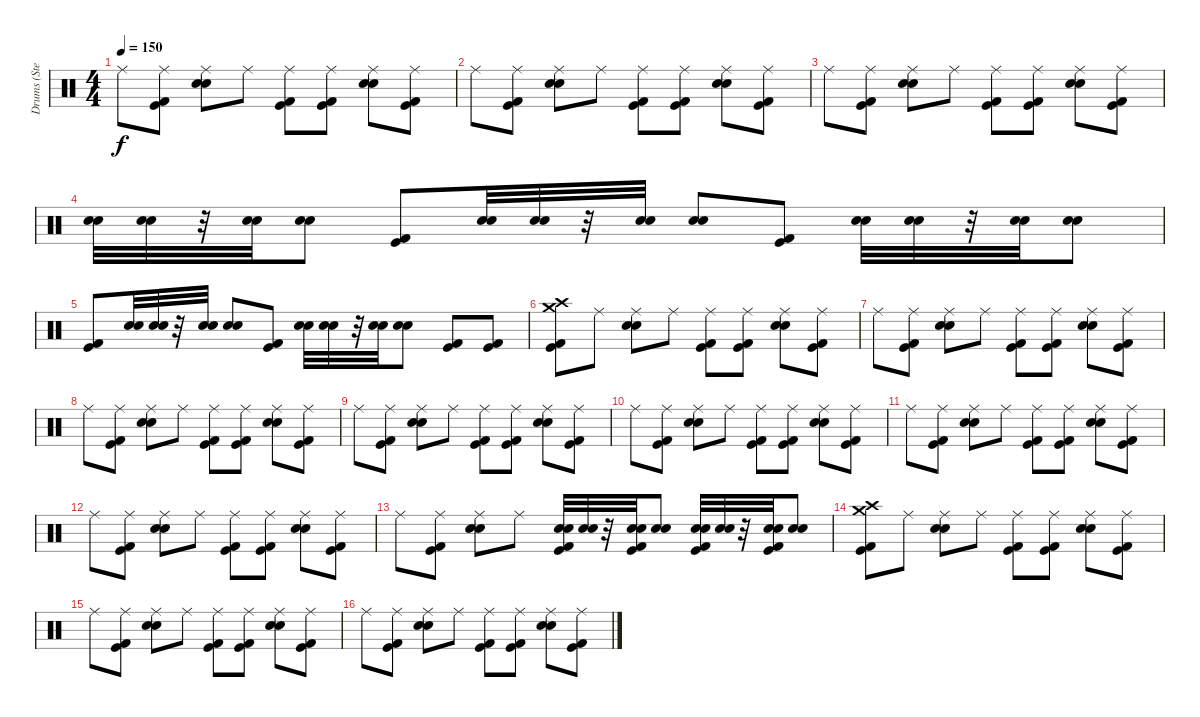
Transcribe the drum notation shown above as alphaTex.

\track ("Drums (Steven)" "Drums (Ste") {instrument percussion}
\staff {score}
\articulation defaults
\ts (4 4)
\tempo 150
\clef neutral
\ks c "Ride (middle)".8{dy f}
("Kick (hit) 2" "Kick (hit)" "Ride (middle)").8 ("Electric Snare (hit)" "Snare (hit) 2" "Ride (middle)").8 "Ride (middle)".8 ("Kick (hit) 2" "Kick (hit)" "Ride (middle)").8 ("Kick (hit) 2" "Kick (hit)" "Ride (middle)").8 ("Electric Snare (hit)" "Snare (hit) 2" "Ride (middle)").8 ("Kick (hit) 2" "Kick (hit)" "Ride (middle)").8 |
"Ride (middle)".8 ("Kick (hit) 2" "Kick (hit)" "Ride (middle)").8 ("Electric Snare (hit)" "Snare (hit) 2" "Ride (middle)").8 "Ride (middle)".8 ("Kick (hit) 2" "Kick (hit)" "Ride (middle)").8 ("Kick (hit) 2" "Kick (hit)" "Ride (middle)").8 ("Electric Snare (hit)" "Snare (hit) 2" "Ride (middle)").8 ("Kick (hit) 2" "Kick (hit)" "Ride (middle)").8 |
"Ride (middle)".8 ("Kick (hit) 2" "Kick (hit)" "Ride (middle)").8 ("Electric Snare (hit)" "Snare (hit) 2" "Ride (middle)").8 "Ride (middle)".8 ("Kick (hit) 2" "Kick (hit)" "Ride (middle)").8 ("Kick (hit) 2" "Kick (hit)" "Ride (middle)").8 ("Electric Snare (hit)" "Snare (hit) 2" "Ride (middle)").8 ("Kick (hit) 2" "Kick (hit)" "Ride (middle)").8 |
("Snare (hit) 2" "Electric Snare (hit)").32 ("Snare (hit) 2" "Electric Snare (hit)").32 r.32 ("Snare (hit) 2" "Electric Snare (hit)").32 ("Snare (hit) 2" "Electric Snare (hit)").8 ("Kick (hit) 2" "Kick (hit)").8 ("Snare (hit) 2" "Electric Snare (hit)").32 ("Snare (hit) 2" "Electric Snare (hit)").32 r.32 ("Snare (hit) 2" "Electric Snare (hit)").32 ("Snare (hit) 2" "Electric Snare (hit)").8 ("Kick (hit) 2" "Kick (hit)").8 ("Snare (hit) 2" "Electric Snare (hit)").32 ("Snare (hit) 2" "Electric Snare (hit)").32 r.32 ("Snare (hit) 2" "Electric Snare (hit)").32 ("Snare (hit) 2" "Electric Snare (hit)").8 |
("Kick (hit) 2" "Kick (hit)").8 ("Snare (hit) 2" "Electric Snare (hit)").32 ("Snare (hit) 2" "Electric Snare (hit)").32 r.32 ("Snare (hit) 2" "Electric Snare (hit)").32 ("Snare (hit) 2" "Electric Snare (hit)").8 ("Kick (hit) 2" "Kick (hit)").8 ("Snare (hit) 2" "Electric Snare (hit)").32 ("Snare (hit) 2" "Electric Snare (hit)").32 r.32 ("Snare (hit) 2" "Electric Snare (hit)").32 ("Snare (hit) 2" "Electric Snare (hit)").8 ("Kick (hit) 2" "Kick (hit)").8 ("Kick (hit) 2" "Kick (hit)").8 |
("Kick (hit) 2" "Kick (hit)" "Crash medium (hit)" "Crash high (hit)").8 "Ride (middle)".8 ("Electric Snare (hit)" "Snare (hit) 2" "Ride (middle)").8 "Ride (middle)".8 ("Kick (hit) 2" "Kick (hit)" "Ride (middle)").8 ("Kick (hit) 2" "Kick (hit)" "Ride (middle)").8 ("Electric Snare (hit)" "Snare (hit) 2" "Ride (middle)").8 ("Kick (hit) 2" "Kick (hit)" "Ride (middle)").8 |
"Ride (middle)".8 ("Kick (hit) 2" "Kick (hit)" "Ride (middle)").8 ("Electric Snare (hit)" "Snare (hit) 2" "Ride (middle)").8 "Ride (middle)".8 ("Kick (hit) 2" "Kick (hit)" "Ride (middle)").8 ("Kick (hit) 2" "Kick (hit)" "Ride (middle)").8 ("Electric Snare (hit)" "Snare (hit) 2" "Ride (middle)").8 ("Kick (hit) 2" "Kick (hit)" "Ride (middle)").8 |
"Ride (middle)".8 ("Kick (hit) 2" "Kick (hit)" "Ride (middle)").8 ("Electric Snare (hit)" "Snare (hit) 2" "Ride (middle)").8 "Ride (middle)".8 ("Kick (hit) 2" "Kick (hit)" "Ride (middle)").8 ("Kick (hit) 2" "Kick (hit)" "Ride (middle)").8 ("Electric Snare (hit)" "Snare (hit) 2" "Ride (middle)").8 ("Kick (hit) 2" "Kick (hit)" "Ride (middle)").8 |
"Ride (middle)".8 ("Kick (hit) 2" "Kick (hit)" "Ride (middle)").8 ("Electric Snare (hit)" "Snare (hit) 2" "Ride (middle)").8 "Ride (middle)".8 ("Kick (hit) 2" "Kick (hit)" "Ride (middle)").8 ("Kick (hit) 2" "Kick (hit)" "Ride (middle)").8 ("Electric Snare (hit)" "Snare (hit) 2" "Ride (middle)").8 ("Kick (hit) 2" "Kick (hit)" "Ride (middle)").8 |
"Ride (middle)".8 ("Kick (hit) 2" "Kick (hit)" "Ride (middle)").8 ("Electric Snare (hit)" "Snare (hit) 2" "Ride (middle)").8 "Ride (middle)".8 ("Kick (hit) 2" "Kick (hit)" "Ride (middle)").8 ("Kick (hit) 2" "Kick (hit)" "Ride (middle)").8 ("Electric Snare (hit)" "Snare (hit) 2" "Ride (middle)").8 ("Kick (hit) 2" "Kick (hit)" "Ride (middle)").8 |
"Ride (middle)".8 ("Kick (hit) 2" "Kick (hit)" "Ride (middle)").8 ("Electric Snare (hit)" "Snare (hit) 2" "Ride (middle)").8 "Ride (middle)".8 ("Kick (hit) 2" "Kick (hit)" "Ride (middle)").8 ("Kick (hit) 2" "Kick (hit)" "Ride (middle)").8 ("Electric Snare (hit)" "Snare (hit) 2" "Ride (middle)").8 ("Kick (hit) 2" "Kick (hit)" "Ride (middle)").8 |
"Ride (middle)".8 ("Kick (hit) 2" "Kick (hit)" "Ride (middle)").8 ("Electric Snare (hit)" "Snare (hit) 2" "Ride (middle)").8 "Ride (middle)".8 ("Kick (hit) 2" "Kick (hit)" "Ride (middle)").8 ("Kick (hit) 2" "Kick (hit)" "Ride (middle)").8 ("Electric Snare (hit)" "Snare (hit) 2" "Ride (middle)").8 ("Kick (hit) 2" "Kick (hit)" "Ride (middle)").8 |
"Ride (middle)".8 ("Kick (hit) 2" "Kick (hit)" "Ride (middle)").8 ("Electric Snare (hit)" "Snare (hit) 2" "Ride (middle)").8 "Ride (middle)".8 ("Kick (hit) 2" "Kick (hit)" "Snare (hit) 2" "Electric Snare (hit)").32 ("Snare (hit) 2" "Electric Snare (hit)").32 r.32 ("Kick (hit) 2" "Kick (hit)" "Snare (hit) 2" "Electric Snare (hit)").32 ("Snare (hit) 2" "Electric Snare (hit)").8 ("Kick (hit) 2" "Kick (hit)" "Snare (hit) 2" "Electric Snare (hit)").32 ("Snare (hit) 2" "Electric Snare (hit)").32 r.32 ("Kick (hit) 2" "Kick (hit)" "Snare (hit) 2" "Electric Snare (hit)").32 ("Snare (hit) 2" "Electric Snare (hit)").8 |
("Kick (hit) 2" "Kick (hit)" "Crash medium (hit)" "Crash high (hit)").8 "Ride (middle)".8 ("Electric Snare (hit)" "Snare (hit) 2" "Ride (middle)").8 "Ride (middle)".8 ("Kick (hit) 2" "Kick (hit)" "Ride (middle)").8 ("Kick (hit) 2" "Kick (hit)" "Ride (middle)").8 ("Electric Snare (hit)" "Snare (hit) 2" "Ride (middle)").8 ("Kick (hit) 2" "Kick (hit)" "Ride (middle)").8 |
"Ride (middle)".8 ("Kick (hit) 2" "Kick (hit)" "Ride (middle)").8 ("Electric Snare (hit)" "Snare (hit) 2" "Ride (middle)").8 "Ride (middle)".8 ("Kick (hit) 2" "Kick (hit)" "Ride (middle)").8 ("Kick (hit) 2" "Kick (hit)" "Ride (middle)").8 ("Electric Snare (hit)" "Snare (hit) 2" "Ride (middle)").8 ("Kick (hit) 2" "Kick (hit)" "Ride (middle)").8 |
"Ride (middle)".8 ("Kick (hit) 2" "Kick (hit)" "Ride (middle)").8 ("Electric Snare (hit)" "Snare (hit) 2" "Ride (middle)").8 "Ride (middle)".8 ("Kick (hit) 2" "Kick (hit)" "Ride (middle)").8 ("Kick (hit) 2" "Kick (hit)" "Ride (middle)").8 ("Electric Snare (hit)" "Snare (hit) 2" "Ride (middle)").8 ("Kick (hit) 2" "Kick (hit)" "Ride (middle)").8
